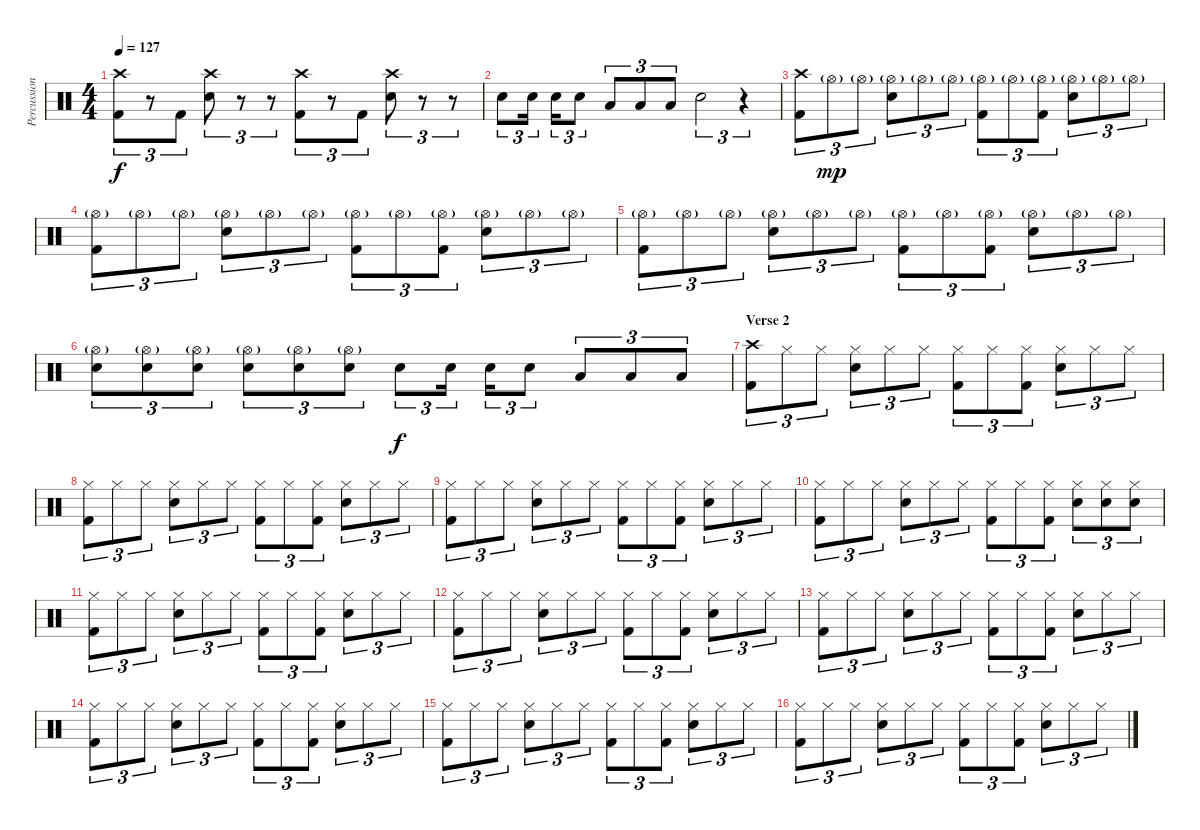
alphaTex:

\track ("Percussion" "Percussion") {instrument percussion}
\staff {score}
\articulation defaults
\ts (4 4)
\tempo 127
\clef neutral
\ks c
("Crash high (hit)" "Kick (hit) 2").8{tu (3 2) dy f} r.8{tu (3 2)} "Kick (hit) 2".8{tu (3 2)} ("Crash high (hit)" "Electric Snare (hit)").8{tu (3 2)} r.8{tu (3 2)} r.8{tu (3 2)} ("Crash high (hit)" "Kick (hit) 2").8{tu (3 2)} r.8{tu (3 2)} "Kick (hit) 2".8{tu (3 2)} ("Crash high (hit)" "Electric Snare (hit)").8{tu (3 2)} r.8{tu (3 2)} r.8{tu (3 2)} |
"Electric Snare (hit)".8{tu (3 2)} "Electric Snare (hit)".16{tu (3 2)} "Electric Snare (hit)".16{tu (3 2)} "Electric Snare (hit)".8{tu (3 2)} "Low Tom (hit)".8{tu (3 2)} "Low Tom (hit)".8{tu (3 2)} "Low Tom (hit)".8{tu (3 2)} "Electric Snare (hit)".2{tu (3 2)} r.4{tu (3 2)} |
("Crash high (hit)" "Kick (hit) 2").8{tu (3 2)} "Hi-Hat (open)"{g}.8{tu (3 2) dy mp} "Hi-Hat (open)"{g}.8{tu (3 2)} ("Hi-Hat (open)"{g} "Electric Snare (hit)").8{tu (3 2)} "Hi-Hat (open)"{g}.8{tu (3 2)} "Hi-Hat (open)"{g}.8{tu (3 2)} ("Hi-Hat (open)"{g} "Kick (hit) 2").8{tu (3 2)} "Hi-Hat (open)"{g}.8{tu (3 2)} ("Hi-Hat (open)"{g} "Kick (hit) 2").8{tu (3 2)} ("Hi-Hat (open)"{g} "Electric Snare (hit)").8{tu (3 2)} "Hi-Hat (open)"{g}.8{tu (3 2)} "Hi-Hat (open)"{g}.8{tu (3 2)} |
("Hi-Hat (open)"{g} "Kick (hit) 2").8{tu (3 2)} "Hi-Hat (open)"{g}.8{tu (3 2)} "Hi-Hat (open)"{g}.8{tu (3 2)} ("Hi-Hat (open)"{g} "Electric Snare (hit)").8{tu (3 2)} "Hi-Hat (open)"{g}.8{tu (3 2)} "Hi-Hat (open)"{g}.8{tu (3 2)} ("Hi-Hat (open)"{g} "Kick (hit) 2").8{tu (3 2)} "Hi-Hat (open)"{g}.8{tu (3 2)} ("Hi-Hat (open)"{g} "Kick (hit) 2").8{tu (3 2)} ("Hi-Hat (open)"{g} "Electric Snare (hit)").8{tu (3 2)} "Hi-Hat (open)"{g}.8{tu (3 2)} "Hi-Hat (open)"{g}.8{tu (3 2)} |
("Hi-Hat (open)"{g} "Kick (hit) 2").8{tu (3 2)} "Hi-Hat (open)"{g}.8{tu (3 2)} "Hi-Hat (open)"{g}.8{tu (3 2)} ("Hi-Hat (open)"{g} "Electric Snare (hit)").8{tu (3 2)} "Hi-Hat (open)"{g}.8{tu (3 2)} "Hi-Hat (open)"{g}.8{tu (3 2)} ("Hi-Hat (open)"{g} "Kick (hit) 2").8{tu (3 2)} "Hi-Hat (open)"{g}.8{tu (3 2)} ("Hi-Hat (open)"{g} "Kick (hit) 2").8{tu (3 2)} ("Hi-Hat (open)"{g} "Electric Snare (hit)").8{tu (3 2)} "Hi-Hat (open)"{g}.8{tu (3 2)} "Hi-Hat (open)"{g}.8{tu (3 2)} |
("Hi-Hat (open)"{g} "Electric Snare (hit)").8{tu (3 2)} ("Hi-Hat (open)"{g} "Electric Snare (hit)").8{tu (3 2)} ("Hi-Hat (open)"{g} "Electric Snare (hit)").8{tu (3 2)} ("Hi-Hat (open)"{g} "Electric Snare (hit)").8{tu (3 2)} ("Hi-Hat (open)"{g} "Electric Snare (hit)").8{tu (3 2)} ("Hi-Hat (open)"{g} "Electric Snare (hit)").8{tu (3 2)} "Electric Snare (hit)".8{tu (3 2) dy f} "Electric Snare (hit)".16{tu (3 2)} "Electric Snare (hit)".16{tu (3 2)} "Electric Snare (hit)".8{tu (3 2)} "Low Tom (hit)".8{tu (3 2)} "Low Tom (hit)".8{tu (3 2)} "Low Tom (hit)".8{tu (3 2)} |
\section ("" "Verse 2")
("Crash high (hit)" "Kick (hit) 2").8{tu (3 2)} "Hi-Hat (closed)".8{tu (3 2)} "Hi-Hat (closed)".8{tu (3 2)} ("Hi-Hat (closed)" "Electric Snare (hit)").8{tu (3 2)} "Hi-Hat (closed)".8{tu (3 2)} "Hi-Hat (closed)".8{tu (3 2)} ("Hi-Hat (closed)" "Kick (hit) 2").8{tu (3 2)} "Hi-Hat (closed)".8{tu (3 2)} ("Hi-Hat (closed)" "Kick (hit) 2").8{tu (3 2)} ("Hi-Hat (closed)" "Electric Snare (hit)").8{tu (3 2)} "Hi-Hat (closed)".8{tu (3 2)} "Hi-Hat (closed)".8{tu (3 2)} |
("Hi-Hat (closed)" "Kick (hit) 2").8{tu (3 2)} "Hi-Hat (closed)".8{tu (3 2)} "Hi-Hat (closed)".8{tu (3 2)} ("Hi-Hat (closed)" "Electric Snare (hit)").8{tu (3 2)} "Hi-Hat (closed)".8{tu (3 2)} "Hi-Hat (closed)".8{tu (3 2)} ("Hi-Hat (closed)" "Kick (hit) 2").8{tu (3 2)} "Hi-Hat (closed)".8{tu (3 2)} ("Hi-Hat (closed)" "Kick (hit) 2").8{tu (3 2)} ("Hi-Hat (closed)" "Electric Snare (hit)").8{tu (3 2)} "Hi-Hat (closed)".8{tu (3 2)} "Hi-Hat (closed)".8{tu (3 2)} |
("Hi-Hat (closed)" "Kick (hit) 2").8{tu (3 2)} "Hi-Hat (closed)".8{tu (3 2)} "Hi-Hat (closed)".8{tu (3 2)} ("Hi-Hat (closed)" "Electric Snare (hit)").8{tu (3 2)} "Hi-Hat (closed)".8{tu (3 2)} "Hi-Hat (closed)".8{tu (3 2)} ("Hi-Hat (closed)" "Kick (hit) 2").8{tu (3 2)} "Hi-Hat (closed)".8{tu (3 2)} ("Hi-Hat (closed)" "Kick (hit) 2").8{tu (3 2)} ("Hi-Hat (closed)" "Electric Snare (hit)").8{tu (3 2)} "Hi-Hat (closed)".8{tu (3 2)} "Hi-Hat (closed)".8{tu (3 2)} |
("Hi-Hat (closed)" "Kick (hit) 2").8{tu (3 2)} "Hi-Hat (closed)".8{tu (3 2)} "Hi-Hat (closed)".8{tu (3 2)} ("Hi-Hat (closed)" "Electric Snare (hit)").8{tu (3 2)} "Hi-Hat (closed)".8{tu (3 2)} "Hi-Hat (closed)".8{tu (3 2)} ("Hi-Hat (closed)" "Kick (hit) 2").8{tu (3 2)} "Hi-Hat (closed)".8{tu (3 2)} ("Hi-Hat (closed)" "Kick (hit) 2").8{tu (3 2)} ("Hi-Hat (closed)" "Electric Snare (hit)").8{tu (3 2)} ("Hi-Hat (closed)" "Electric Snare (hit)").8{tu (3 2)} ("Hi-Hat (closed)" "Electric Snare (hit)").8{tu (3 2)} |
("Hi-Hat (closed)" "Kick (hit) 2").8{tu (3 2)} "Hi-Hat (closed)".8{tu (3 2)} "Hi-Hat (closed)".8{tu (3 2)} ("Hi-Hat (closed)" "Electric Snare (hit)").8{tu (3 2)} "Hi-Hat (closed)".8{tu (3 2)} "Hi-Hat (closed)".8{tu (3 2)} ("Hi-Hat (closed)" "Kick (hit) 2").8{tu (3 2)} "Hi-Hat (closed)".8{tu (3 2)} ("Hi-Hat (closed)" "Kick (hit) 2").8{tu (3 2)} ("Hi-Hat (closed)" "Electric Snare (hit)").8{tu (3 2)} "Hi-Hat (closed)".8{tu (3 2)} "Hi-Hat (closed)".8{tu (3 2)} |
("Hi-Hat (closed)" "Kick (hit) 2").8{tu (3 2)} "Hi-Hat (closed)".8{tu (3 2)} "Hi-Hat (closed)".8{tu (3 2)} ("Hi-Hat (closed)" "Electric Snare (hit)").8{tu (3 2)} "Hi-Hat (closed)".8{tu (3 2)} "Hi-Hat (closed)".8{tu (3 2)} ("Hi-Hat (closed)" "Kick (hit) 2").8{tu (3 2)} "Hi-Hat (closed)".8{tu (3 2)} ("Hi-Hat (closed)" "Kick (hit) 2").8{tu (3 2)} ("Hi-Hat (closed)" "Electric Snare (hit)").8{tu (3 2)} "Hi-Hat (closed)".8{tu (3 2)} "Hi-Hat (closed)".8{tu (3 2)} |
("Hi-Hat (closed)" "Kick (hit) 2").8{tu (3 2)} "Hi-Hat (closed)".8{tu (3 2)} "Hi-Hat (closed)".8{tu (3 2)} ("Hi-Hat (closed)" "Electric Snare (hit)").8{tu (3 2)} "Hi-Hat (closed)".8{tu (3 2)} "Hi-Hat (closed)".8{tu (3 2)} ("Hi-Hat (closed)" "Kick (hit) 2").8{tu (3 2)} "Hi-Hat (closed)".8{tu (3 2)} ("Hi-Hat (closed)" "Kick (hit) 2").8{tu (3 2)} ("Hi-Hat (closed)" "Electric Snare (hit)").8{tu (3 2)} "Hi-Hat (closed)".8{tu (3 2)} "Hi-Hat (closed)".8{tu (3 2)} |
("Hi-Hat (closed)" "Kick (hit) 2").8{tu (3 2)} "Hi-Hat (closed)".8{tu (3 2)} "Hi-Hat (closed)".8{tu (3 2)} ("Hi-Hat (closed)" "Electric Snare (hit)").8{tu (3 2)} "Hi-Hat (closed)".8{tu (3 2)} "Hi-Hat (closed)".8{tu (3 2)} ("Hi-Hat (closed)" "Kick (hit) 2").8{tu (3 2)} "Hi-Hat (closed)".8{tu (3 2)} ("Hi-Hat (closed)" "Kick (hit) 2").8{tu (3 2)} ("Hi-Hat (closed)" "Electric Snare (hit)").8{tu (3 2)} "Hi-Hat (closed)".8{tu (3 2)} "Hi-Hat (closed)".8{tu (3 2)} |
("Hi-Hat (closed)" "Kick (hit) 2").8{tu (3 2)} "Hi-Hat (closed)".8{tu (3 2)} "Hi-Hat (closed)".8{tu (3 2)} ("Hi-Hat (closed)" "Electric Snare (hit)").8{tu (3 2)} "Hi-Hat (closed)".8{tu (3 2)} "Hi-Hat (closed)".8{tu (3 2)} ("Hi-Hat (closed)" "Kick (hit) 2").8{tu (3 2)} "Hi-Hat (closed)".8{tu (3 2)} ("Hi-Hat (closed)" "Kick (hit) 2").8{tu (3 2)} ("Hi-Hat (closed)" "Electric Snare (hit)").8{tu (3 2)} "Hi-Hat (closed)".8{tu (3 2)} "Hi-Hat (closed)".8{tu (3 2)} |
("Hi-Hat (closed)" "Kick (hit) 2").8{tu (3 2)} "Hi-Hat (closed)".8{tu (3 2)} "Hi-Hat (closed)".8{tu (3 2)} ("Hi-Hat (closed)" "Electric Snare (hit)").8{tu (3 2)} "Hi-Hat (closed)".8{tu (3 2)} "Hi-Hat (closed)".8{tu (3 2)} ("Hi-Hat (closed)" "Kick (hit) 2").8{tu (3 2)} "Hi-Hat (closed)".8{tu (3 2)} ("Hi-Hat (closed)" "Kick (hit) 2").8{tu (3 2)} ("Hi-Hat (closed)" "Electric Snare (hit)").8{tu (3 2)} "Hi-Hat (closed)".8{tu (3 2)} "Hi-Hat (closed)".8{tu (3 2)}
